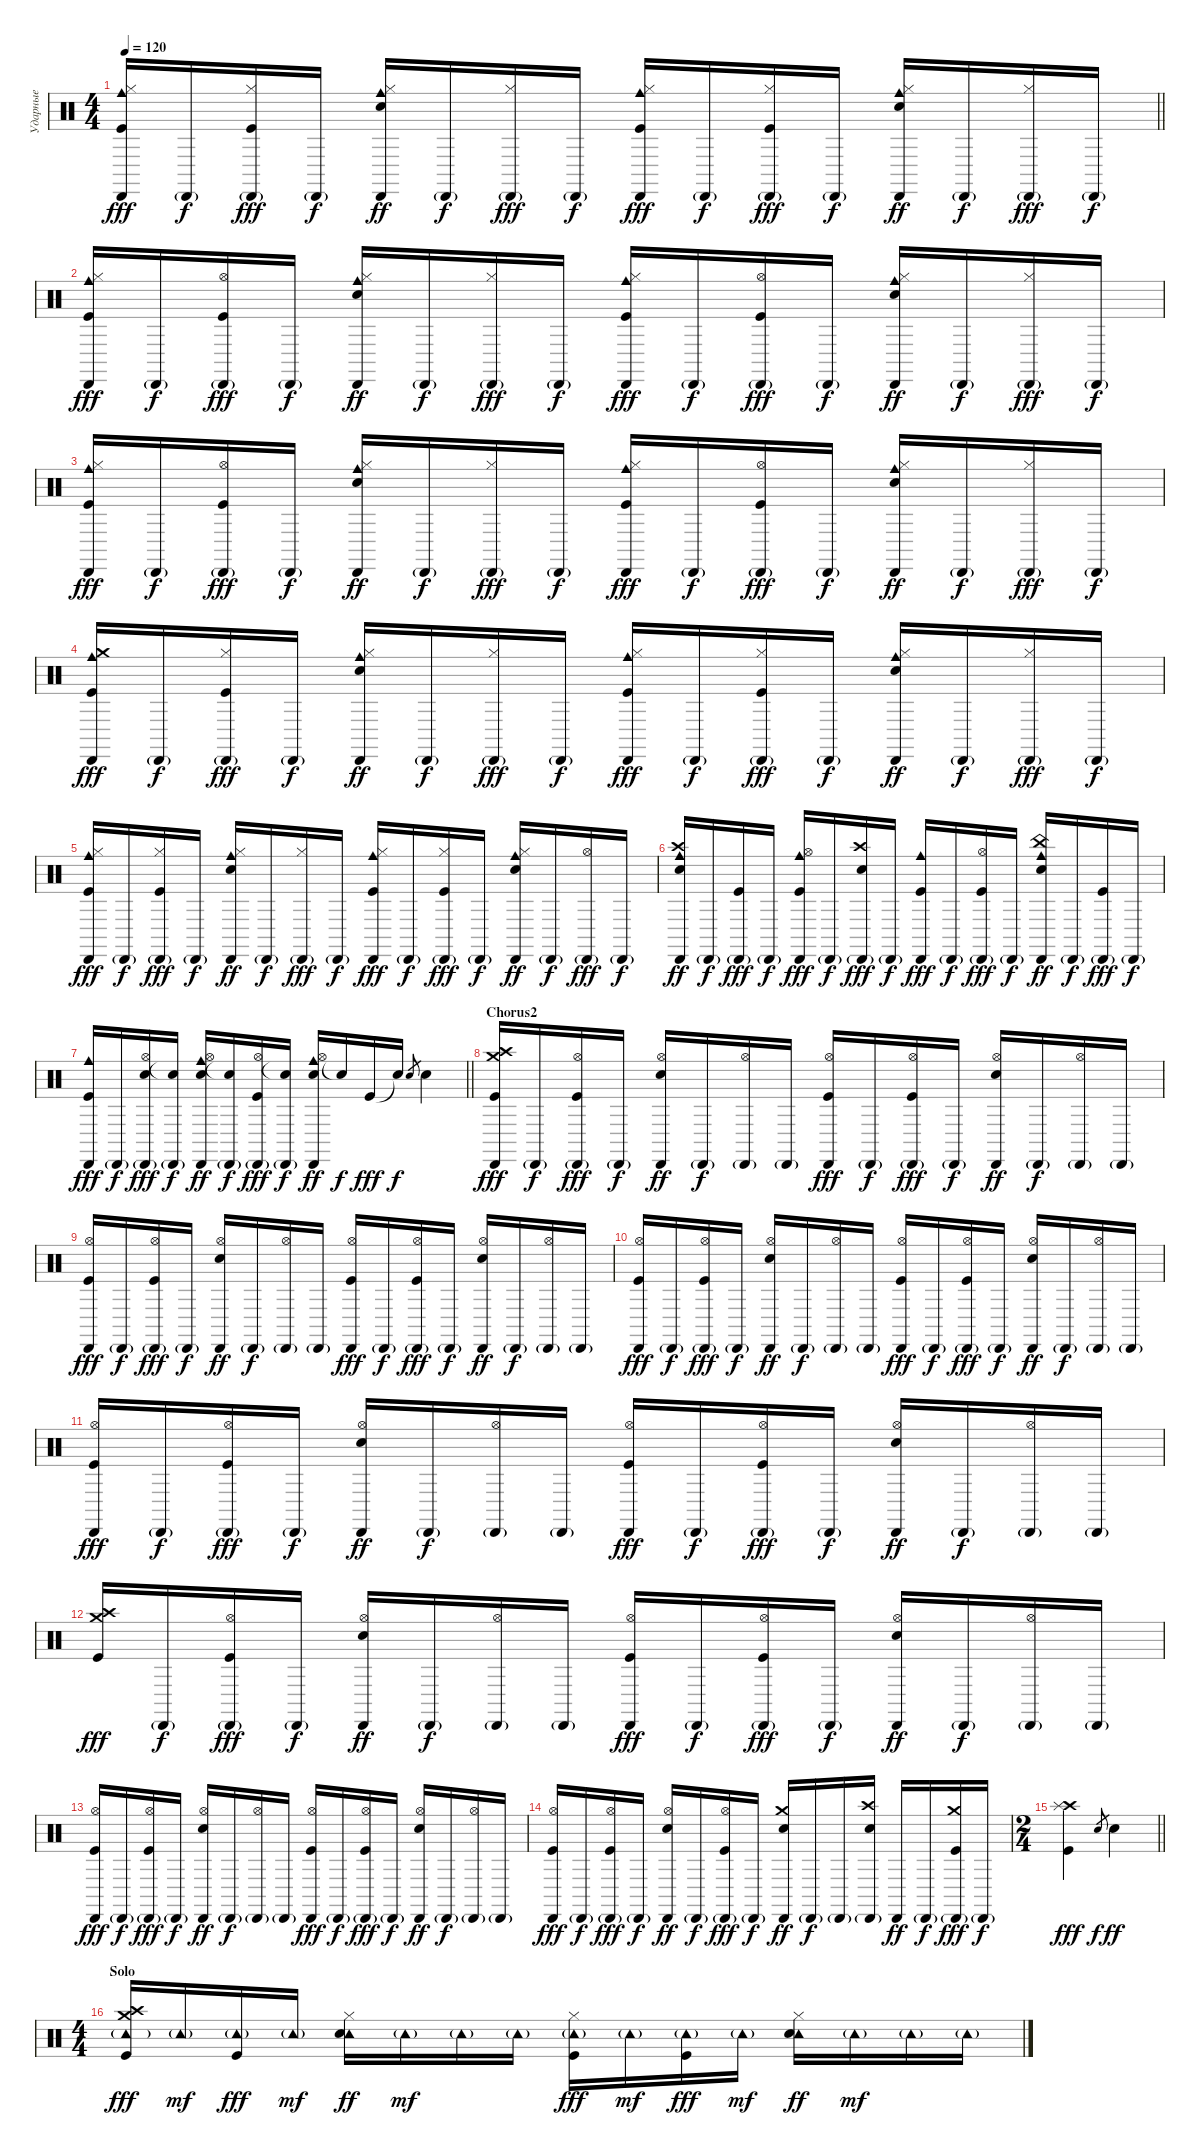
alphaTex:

\track ("Ударные" "Ударные") {instrument percussion}
\staff {score}
\articulation defaults
\ts (4 4)
\tempo 120
\clef neutral
\barLineRight lightlight
\ks c
("Hi-Hat (closed)" "Cabasa (hit)" "Cowbell medium (hit)" "Kick (hit)").16{dy fff} "Cabasa (hit)"{g}.16{dy f} ("Hi-Hat (closed)" "Cabasa (hit)"{g} "Kick (hit)").16{dy fff} "Cabasa (hit)"{g}.16{dy f} ("Hi-Hat (closed)" "Cabasa (hit)" "Cowbell medium (hit)" "Snare (hit) 2").16{dy ff} "Cabasa (hit)"{g}.16{dy f} ("Hi-Hat (closed)" "Cabasa (hit)"{g}).16{dy fff} "Cabasa (hit)"{g}.16{dy f} ("Hi-Hat (closed)" "Cabasa (hit)" "Cowbell medium (hit)" "Kick (hit)").16{dy fff} "Cabasa (hit)"{g}.16{dy f} ("Hi-Hat (closed)" "Cabasa (hit)"{g} "Kick (hit)").16{dy fff} "Cabasa (hit)"{g}.16{dy f} ("Hi-Hat (closed)" "Cabasa (hit)" "Cowbell medium (hit)" "Snare (hit) 2").16{dy ff} "Cabasa (hit)"{g}.16{dy f} ("Hi-Hat (closed)" "Cabasa (hit)"{g}).16{dy fff} "Cabasa (hit)"{g}.16{dy f} |
("Hi-Hat (closed)" "Cabasa (hit)" "Cowbell medium (hit)" "Kick (hit)").16{dy fff} "Cabasa (hit)"{g}.16{dy f} ("Hi-Hat (open)" "Cabasa (hit)"{g} "Kick (hit)").16{dy fff} "Cabasa (hit)"{g}.16{dy f} ("Hi-Hat (closed)" "Cabasa (hit)" "Cowbell medium (hit)" "Snare (hit) 2").16{dy ff} "Cabasa (hit)"{g}.16{dy f} ("Hi-Hat (closed)" "Cabasa (hit)"{g}).16{dy fff} "Cabasa (hit)"{g}.16{dy f} ("Hi-Hat (closed)" "Cabasa (hit)" "Cowbell medium (hit)" "Kick (hit)").16{dy fff} "Cabasa (hit)"{g}.16{dy f} ("Hi-Hat (open)" "Cabasa (hit)"{g} "Kick (hit)").16{dy fff} "Cabasa (hit)"{g}.16{dy f} ("Hi-Hat (closed)" "Cabasa (hit)" "Cowbell medium (hit)" "Snare (hit) 2").16{dy ff} "Cabasa (hit)"{g}.16{dy f} ("Hi-Hat (closed)" "Cabasa (hit)"{g}).16{dy fff} "Cabasa (hit)"{g}.16{dy f} |
("Hi-Hat (closed)" "Cabasa (hit)" "Cowbell medium (hit)" "Kick (hit)").16{dy fff} "Cabasa (hit)"{g}.16{dy f} ("Hi-Hat (open)" "Cabasa (hit)"{g} "Kick (hit)").16{dy fff} "Cabasa (hit)"{g}.16{dy f} ("Hi-Hat (closed)" "Cabasa (hit)" "Cowbell medium (hit)" "Snare (hit) 2").16{dy ff} "Cabasa (hit)"{g}.16{dy f} ("Hi-Hat (closed)" "Cabasa (hit)"{g}).16{dy fff} "Cabasa (hit)"{g}.16{dy f} ("Hi-Hat (closed)" "Cabasa (hit)" "Cowbell medium (hit)" "Kick (hit)").16{dy fff} "Cabasa (hit)"{g}.16{dy f} ("Hi-Hat (open)" "Cabasa (hit)"{g} "Kick (hit)").16{dy fff} "Cabasa (hit)"{g}.16{dy f} ("Hi-Hat (closed)" "Cabasa (hit)" "Cowbell medium (hit)" "Snare (hit) 2").16{dy ff} "Cabasa (hit)"{g}.16{dy f} ("Hi-Hat (closed)" "Cabasa (hit)"{g}).16{dy fff} "Cabasa (hit)"{g}.16{dy f} |
("Crash medium (hit)" "Cabasa (hit)" "Cowbell medium (hit)" "Kick (hit)").16{dy fff} "Cabasa (hit)"{g}.16{dy f} ("Hi-Hat (closed)" "Cabasa (hit)"{g} "Kick (hit)").16{dy fff} "Cabasa (hit)"{g}.16{dy f} ("Hi-Hat (closed)" "Cabasa (hit)" "Cowbell medium (hit)" "Snare (hit) 2").16{dy ff} "Cabasa (hit)"{g}.16{dy f} ("Hi-Hat (closed)" "Cabasa (hit)"{g}).16{dy fff} "Cabasa (hit)"{g}.16{dy f} ("Hi-Hat (closed)" "Cabasa (hit)" "Cowbell medium (hit)" "Kick (hit)").16{dy fff} "Cabasa (hit)"{g}.16{dy f} ("Hi-Hat (closed)" "Cabasa (hit)"{g} "Kick (hit)").16{dy fff} "Cabasa (hit)"{g}.16{dy f} ("Hi-Hat (closed)" "Cabasa (hit)" "Cowbell medium (hit)" "Snare (hit) 2").16{dy ff} "Cabasa (hit)"{g}.16{dy f} ("Hi-Hat (closed)" "Cabasa (hit)"{g}).16{dy fff} "Cabasa (hit)"{g}.16{dy f} |
("Hi-Hat (closed)" "Cabasa (hit)" "Cowbell medium (hit)" "Kick (hit)").16{dy fff} "Cabasa (hit)"{g}.16{dy f} ("Hi-Hat (closed)" "Cabasa (hit)"{g} "Kick (hit)").16{dy fff} "Cabasa (hit)"{g}.16{dy f} ("Hi-Hat (closed)" "Cabasa (hit)" "Cowbell medium (hit)" "Snare (hit) 2").16{dy ff} "Cabasa (hit)"{g}.16{dy f} ("Hi-Hat (closed)" "Cabasa (hit)"{g}).16{dy fff} "Cabasa (hit)"{g}.16{dy f} ("Hi-Hat (closed)" "Cabasa (hit)" "Cowbell medium (hit)" "Kick (hit)").16{dy fff} "Cabasa (hit)"{g}.16{dy f} ("Hi-Hat (closed)" "Cabasa (hit)"{g} "Kick (hit)").16{dy fff} "Cabasa (hit)"{g}.16{dy f} ("Hi-Hat (closed)" "Cabasa (hit)" "Cowbell medium (hit)" "Snare (hit) 2").16{dy ff} "Cabasa (hit)"{g}.16{dy f} ("Hi-Hat (open)" "Cabasa (hit)"{g}).16{dy fff} "Cabasa (hit)"{g}.16{dy f} |
("Crash high (hit)" "Cabasa (hit)" "Cowbell medium (hit)" "Snare (hit) 2").16{dy ff} "Cabasa (hit)"{g}.16{dy f} ("Cabasa (hit)"{g} "Kick (hit)").16{dy fff} "Cabasa (hit)"{g}.16{dy f} ("Hi-Hat (open)" "Cabasa (hit)" "Cowbell medium (hit)" "Kick (hit)").16{dy fff} "Cabasa (hit)"{g}.16{dy f} ("Crash high (hit)" "Cabasa (hit)"{g} "Snare (hit) 2").16{dy fff} "Cabasa (hit)"{g}.16{dy f} ("Cabasa (hit)" "Cowbell medium (hit)" "Kick (hit)").16{dy fff} "Cabasa (hit)"{g}.16{dy f} ("Hi-Hat (open)" "Cabasa (hit)"{g} "Kick (hit)").16{dy fff} "Cabasa (hit)"{g}.16{dy f} ("China (hit)" "Cabasa (hit)" "Cowbell medium (hit)" "Snare (hit) 2").16{dy ff} "Cabasa (hit)"{g}.16{dy f} ("Cabasa (hit)"{g} "Kick (hit)").16{dy fff} "Cabasa (hit)"{g}.16{dy f} |
\barLineRight lightlight
("Cabasa (hit)" "Cowbell medium (hit)" "Kick (hit)").16{dy fff} "Cabasa (hit)"{g}.16{dy f} ("Hi-Hat (open)" "Cabasa (hit)"{g} "Snare (hit) 2").16{dy fff} ("Snare (hit)"{t} "Cabasa (hit)"{g}).16{dy f} ("Hi-Hat (open)" "Cabasa (hit)" "Cowbell medium (hit)" "Snare (hit) 2").16{dy ff} ("Snare (hit)"{t} "Cabasa (hit)"{g}).16{dy f} ("Hi-Hat (open)" "Cabasa (hit)"{g} "Kick (hit)").16{dy fff} ("Snare (hit)"{t} "Cabasa (hit)"{g}).16{dy f} ("Hi-Hat (open)" "Cabasa (hit)" "Cowbell medium (hit)" "Snare (hit) 2").16{dy ff} "Snare (hit)"{t}.16{dy f} "Kick (hit)".16{dy fff} "Snare (hit)"{t}.16{dy f} "Snare (hit) 2".8{gr} "Snare (hit) 2".4 |
\section ("" "Chorus2")
("Crash medium (hit)" "Cabasa (hit)" "Crash high (hit)" "Kick (hit)").16{dy fff} "Cabasa (hit)"{g}.16{dy f} ("Hi-Hat (open)" "Cabasa (hit)"{g} "Kick (hit)").16{dy fff} "Cabasa (hit)"{g}.16{dy f} ("Hi-Hat (open)" "Cabasa (hit)" "Snare (hit) 2").16{dy ff} "Cabasa (hit)"{g}.16{dy f} ("Hi-Hat (open)" "Cabasa (hit)"{g}).16 "Cabasa (hit)"{g}.16 ("Hi-Hat (open)" "Cabasa (hit)" "Kick (hit)").16{dy fff} "Cabasa (hit)"{g}.16{dy f} ("Hi-Hat (open)" "Cabasa (hit)"{g} "Kick (hit)").16{dy fff} "Cabasa (hit)"{g}.16{dy f} ("Hi-Hat (open)" "Cabasa (hit)" "Snare (hit) 2").16{dy ff} "Cabasa (hit)"{g}.16{dy f} ("Hi-Hat (open)" "Cabasa (hit)"{g}).16 "Cabasa (hit)"{g}.16 |
("Hi-Hat (open)" "Cabasa (hit)" "Kick (hit)").16{dy fff} "Cabasa (hit)"{g}.16{dy f} ("Hi-Hat (open)" "Cabasa (hit)"{g} "Kick (hit)").16{dy fff} "Cabasa (hit)"{g}.16{dy f} ("Hi-Hat (open)" "Cabasa (hit)" "Snare (hit) 2").16{dy ff} "Cabasa (hit)"{g}.16{dy f} ("Hi-Hat (open)" "Cabasa (hit)"{g}).16 "Cabasa (hit)"{g}.16 ("Hi-Hat (open)" "Cabasa (hit)" "Kick (hit)").16{dy fff} "Cabasa (hit)"{g}.16{dy f} ("Hi-Hat (open)" "Cabasa (hit)"{g} "Kick (hit)").16{dy fff} "Cabasa (hit)"{g}.16{dy f} ("Hi-Hat (open)" "Cabasa (hit)" "Snare (hit) 2").16{dy ff} "Cabasa (hit)"{g}.16{dy f} ("Hi-Hat (open)" "Cabasa (hit)"{g}).16 "Cabasa (hit)"{g}.16 |
("Hi-Hat (open)" "Cabasa (hit)" "Kick (hit)").16{dy fff} "Cabasa (hit)"{g}.16{dy f} ("Hi-Hat (open)" "Cabasa (hit)"{g} "Kick (hit)").16{dy fff} "Cabasa (hit)"{g}.16{dy f} ("Hi-Hat (open)" "Cabasa (hit)" "Snare (hit) 2").16{dy ff} "Cabasa (hit)"{g}.16{dy f} ("Hi-Hat (open)" "Cabasa (hit)"{g}).16 "Cabasa (hit)"{g}.16 ("Hi-Hat (open)" "Cabasa (hit)" "Kick (hit)").16{dy fff} "Cabasa (hit)"{g}.16{dy f} ("Hi-Hat (open)" "Cabasa (hit)"{g} "Kick (hit)").16{dy fff} "Cabasa (hit)"{g}.16{dy f} ("Hi-Hat (open)" "Cabasa (hit)" "Snare (hit) 2").16{dy ff} "Cabasa (hit)"{g}.16{dy f} ("Hi-Hat (open)" "Cabasa (hit)"{g}).16 "Cabasa (hit)"{g}.16 |
("Hi-Hat (open)" "Cabasa (hit)" "Kick (hit)").16{dy fff} "Cabasa (hit)"{g}.16{dy f} ("Hi-Hat (open)" "Cabasa (hit)"{g} "Kick (hit)").16{dy fff} "Cabasa (hit)"{g}.16{dy f} ("Hi-Hat (open)" "Cabasa (hit)" "Snare (hit) 2").16{dy ff} "Cabasa (hit)"{g}.16{dy f} ("Hi-Hat (open)" "Cabasa (hit)"{g}).16 "Cabasa (hit)"{g}.16 ("Hi-Hat (open)" "Cabasa (hit)" "Kick (hit)").16{dy fff} "Cabasa (hit)"{g}.16{dy f} ("Hi-Hat (open)" "Cabasa (hit)"{g} "Kick (hit)").16{dy fff} "Cabasa (hit)"{g}.16{dy f} ("Hi-Hat (open)" "Cabasa (hit)" "Snare (hit) 2").16{dy ff} "Cabasa (hit)"{g}.16{dy f} ("Hi-Hat (open)" "Cabasa (hit)"{g}).16 "Cabasa (hit)"{g}.16 |
("Crash medium (hit)" "Crash high (hit)" "Kick (hit)").16{dy fff} "Cabasa (hit)"{g}.16{dy f} ("Hi-Hat (open)" "Cabasa (hit)"{g} "Kick (hit)").16{dy fff} "Cabasa (hit)"{g}.16{dy f} ("Hi-Hat (open)" "Cabasa (hit)" "Snare (hit) 2").16{dy ff} "Cabasa (hit)"{g}.16{dy f} ("Hi-Hat (open)" "Cabasa (hit)"{g}).16 "Cabasa (hit)"{g}.16 ("Hi-Hat (open)" "Cabasa (hit)" "Kick (hit)").16{dy fff} "Cabasa (hit)"{g}.16{dy f} ("Hi-Hat (open)" "Cabasa (hit)"{g} "Kick (hit)").16{dy fff} "Cabasa (hit)"{g}.16{dy f} ("Hi-Hat (open)" "Cabasa (hit)" "Snare (hit) 2").16{dy ff} "Cabasa (hit)"{g}.16{dy f} ("Hi-Hat (open)" "Cabasa (hit)"{g}).16 "Cabasa (hit)"{g}.16 |
("Hi-Hat (open)" "Cabasa (hit)" "Kick (hit)").16{dy fff} "Cabasa (hit)"{g}.16{dy f} ("Hi-Hat (open)" "Cabasa (hit)"{g} "Kick (hit)").16{dy fff} "Cabasa (hit)"{g}.16{dy f} ("Hi-Hat (open)" "Cabasa (hit)" "Snare (hit) 2").16{dy ff} "Cabasa (hit)"{g}.16{dy f} ("Hi-Hat (open)" "Cabasa (hit)"{g}).16 "Cabasa (hit)"{g}.16 ("Hi-Hat (open)" "Cabasa (hit)" "Kick (hit)").16{dy fff} "Cabasa (hit)"{g}.16{dy f} ("Hi-Hat (open)" "Cabasa (hit)"{g} "Kick (hit)").16{dy fff} "Cabasa (hit)"{g}.16{dy f} ("Hi-Hat (open)" "Cabasa (hit)" "Snare (hit) 2").16{dy ff} "Cabasa (hit)"{g}.16{dy f} ("Hi-Hat (open)" "Cabasa (hit)"{g}).16 "Cabasa (hit)"{g}.16 |
("Hi-Hat (open)" "Cabasa (hit)" "Kick (hit)").16{dy fff} "Cabasa (hit)"{g}.16{dy f} ("Hi-Hat (open)" "Cabasa (hit)"{g} "Kick (hit)").16{dy fff} "Cabasa (hit)"{g}.16{dy f} ("Hi-Hat (open)" "Cabasa (hit)" "Snare (hit) 2").16{dy ff} "Cabasa (hit)"{g}.16{dy f} ("Hi-Hat (open)" "Cabasa (hit)"{g} "Kick (hit)").16{dy fff} "Cabasa (hit)"{g}.16{dy f} ("Crash medium (hit)" "Cabasa (hit)" "Snare (hit) 2").16{dy ff} "Cabasa (hit)"{g}.16{dy f} "Cabasa (hit)"{g}.16 ("Crash high (hit)" "Cabasa (hit)"{g} "Snare (hit) 2").16 "Cabasa (hit)".16{dy ff} "Cabasa (hit)"{g}.16{dy f} ("Crash medium (hit)" "Cabasa (hit)"{g} "Kick (hit)").16{dy fff} "Cabasa (hit)"{g}.16{dy f} |
\ts (2 4)
\barLineRight lightlight
("Crash high (hit)" "Splash (hit)" "Kick (hit)").4{dy fff} "Snare (hit) 2".8{gr dy f} "Snare (hit) 2".4{dy ff} |
\ts (4 4)
\section ("" "Solo")
("Crash medium (hit)" "Tambourine (hit)"{g} "Crash high (hit)" "Kick (hit)").16{dy fff} "Tambourine (hit)"{g}.16{dy mf} ("Tambourine (hit)"{g} "Kick (hit)").16{dy fff} "Tambourine (hit)"{g}.16{dy mf} ("Hi-Hat (closed)" "Tambourine (hit)" "Snare (hit) 2").16{dy ff} "Tambourine (hit)"{g}.16{dy mf} "Tambourine (hit)"{g}.16 "Tambourine (hit)"{g}.16 ("Hi-Hat (closed)" "Tambourine (hit)"{g} "Kick (hit)").16{dy fff} "Tambourine (hit)"{g}.16{dy mf} ("Tambourine (hit)"{g} "Kick (hit)").16{dy fff} "Tambourine (hit)"{g}.16{dy mf} ("Hi-Hat (closed)" "Tambourine (hit)" "Snare (hit) 2").16{dy ff} "Tambourine (hit)"{g}.16{dy mf} "Tambourine (hit)"{g}.16 "Tambourine (hit)"{g}.16
